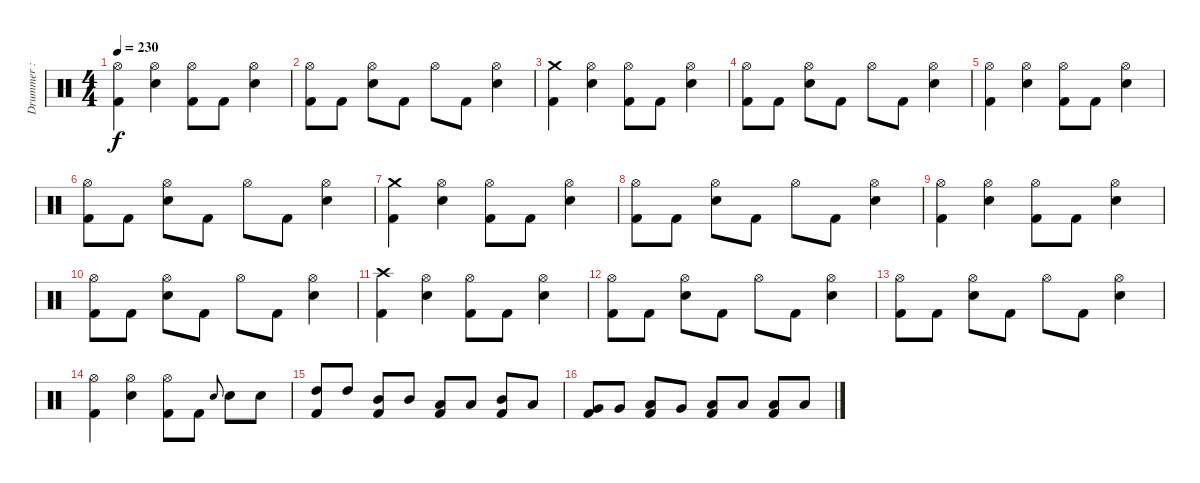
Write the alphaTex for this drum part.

\track ("Drummer : Tainaka Ritsu - Swan" "Drummer : ") {instrument percussion}
\staff {score}
\articulation defaults
\ts (4 4)
\tempo 230
\clef neutral
\ks c
("Hi-Hat (open)" "Kick (hit) 2").4{dy f} ("Hi-Hat (open)" "Electric Snare (hit)").4 ("Hi-Hat (open)" "Kick (hit) 2").8 "Kick (hit) 2".8 ("Hi-Hat (open)" "Electric Snare (hit)").4 |
("Hi-Hat (open)" "Kick (hit) 2").8 "Kick (hit) 2".8 ("Hi-Hat (open)" "Electric Snare (hit)").8 "Kick (hit) 2".8 "Hi-Hat (open)".8 "Kick (hit) 2".8 ("Hi-Hat (open)" "Electric Snare (hit)").4 |
("Crash medium (hit)" "Kick (hit) 2").4 ("Hi-Hat (open)" "Electric Snare (hit)").4 ("Hi-Hat (open)" "Kick (hit) 2").8 "Kick (hit) 2".8 ("Hi-Hat (open)" "Electric Snare (hit)").4 |
("Hi-Hat (open)" "Kick (hit) 2").8 "Kick (hit) 2".8 ("Hi-Hat (open)" "Electric Snare (hit)").8 "Kick (hit) 2".8 "Hi-Hat (open)".8 "Kick (hit) 2".8 ("Hi-Hat (open)" "Electric Snare (hit)").4 |
("Hi-Hat (open)" "Kick (hit) 2").4 ("Hi-Hat (open)" "Electric Snare (hit)").4 ("Hi-Hat (open)" "Kick (hit) 2").8 "Kick (hit) 2".8 ("Hi-Hat (open)" "Electric Snare (hit)").4 |
("Hi-Hat (open)" "Kick (hit) 2").8 "Kick (hit) 2".8 ("Hi-Hat (open)" "Electric Snare (hit)").8 "Kick (hit) 2".8 "Hi-Hat (open)".8 "Kick (hit) 2".8 ("Hi-Hat (open)" "Electric Snare (hit)").4 |
("Crash medium (hit)" "Kick (hit) 2").4 ("Hi-Hat (open)" "Electric Snare (hit)").4 ("Hi-Hat (open)" "Kick (hit) 2").8 "Kick (hit) 2".8 ("Hi-Hat (open)" "Electric Snare (hit)").4 |
("Hi-Hat (open)" "Kick (hit) 2").8 "Kick (hit) 2".8 ("Hi-Hat (open)" "Electric Snare (hit)").8 "Kick (hit) 2".8 "Hi-Hat (open)".8 "Kick (hit) 2".8 ("Hi-Hat (open)" "Electric Snare (hit)").4 |
("Hi-Hat (open)" "Kick (hit) 2").4 ("Hi-Hat (open)" "Electric Snare (hit)").4 ("Hi-Hat (open)" "Kick (hit) 2").8 "Kick (hit) 2".8 ("Hi-Hat (open)" "Electric Snare (hit)").4 |
("Hi-Hat (open)" "Kick (hit) 2").8 "Kick (hit) 2".8 ("Hi-Hat (open)" "Electric Snare (hit)").8 "Kick (hit) 2".8 "Hi-Hat (open)".8 "Kick (hit) 2".8 ("Hi-Hat (open)" "Electric Snare (hit)").4 |
("Crash high (hit)" "Kick (hit) 2").4 ("Hi-Hat (open)" "Electric Snare (hit)").4 ("Hi-Hat (open)" "Kick (hit) 2").8 "Kick (hit) 2".8 ("Hi-Hat (open)" "Electric Snare (hit)").4 |
("Hi-Hat (open)" "Kick (hit) 2").8 "Kick (hit) 2".8 ("Hi-Hat (open)" "Electric Snare (hit)").8 "Kick (hit) 2".8 "Hi-Hat (open)".8 "Kick (hit) 2".8 ("Hi-Hat (open)" "Electric Snare (hit)").4 |
("Hi-Hat (open)" "Kick (hit) 2").8 "Kick (hit) 2".8 ("Hi-Hat (open)" "Electric Snare (hit)").8 "Kick (hit) 2".8 "Hi-Hat (open)".8 "Kick (hit) 2".8 ("Hi-Hat (open)" "Electric Snare (hit)").4 |
("Hi-Hat (open)" "Kick (hit) 2").4 ("Hi-Hat (open)" "Electric Snare (hit)").4 ("Hi-Hat (open)" "Kick (hit) 2").8 "Kick (hit) 2".8 "Electric Snare (hit)".8{gr onbeat} "Electric Snare (hit)".8 "Electric Snare (hit)".8 |
("High Tom (hit)" "Kick (hit) 2").8 "High Tom (hit)".8 ("Mid Tom (hit)" "Kick (hit) 2").8 "Mid Tom (hit)".8 ("Low Tom (hit)" "Kick (hit) 2").8 "Low Tom (hit)".8 ("Mid Tom (hit)" "Kick (hit) 2").8 "Low Tom (hit)".8 |
("Very Low Tom (hit)" "Kick (hit) 2").8 "Very Low Tom (hit)".8 ("Low Tom (hit)" "Kick (hit) 2").8 "Very Low Tom (hit)".8 ("Low Floor Tom (hit)" "Kick (hit) 2").8 "Low Floor Tom (hit)".8 ("Low Floor Tom (hit)" "Kick (hit) 2").8 "Low Floor Tom (hit)".8
